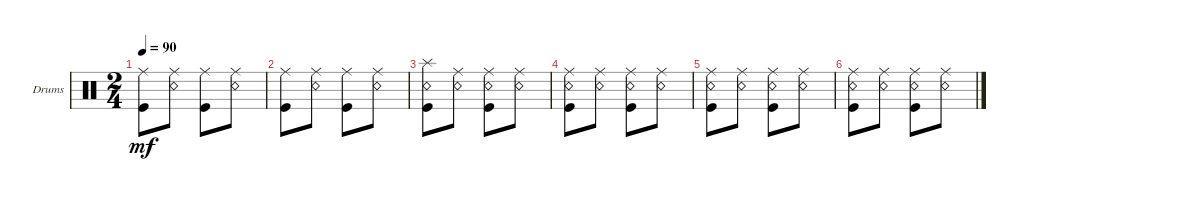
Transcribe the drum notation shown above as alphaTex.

\defaultSystemsLayout 4
\bracketExtendMode groupsimilarinstruments
\firstSystemTrackNameOrientation horizontal
\otherSystemsTrackNameOrientation horizontal
\track ("Drumkit" "Drums") {instrument percussion}
\staff {score}
\articulation defaults
\ts (2 4)
\tempo 90
\clef neutral
\ks c
("Kick (hit)" "Ride (middle)").8{dy mf} ("Ride (middle)" "Snare (rim shot)").8 ("Ride (middle)" "Kick (hit)").8 ("Ride (middle)" "Snare (rim shot)").8 |
("Kick (hit)" "Ride (middle)").8 ("Ride (middle)" "Snare (rim shot)").8 ("Ride (middle)" "Kick (hit)").8 ("Ride (middle)" "Snare (rim shot)").8 |
("Kick (hit)" "Splash (hit)" "Snare (rim shot)").8 ("Ride (middle)" "Snare (rim shot)").8 ("Ride (middle)" "Kick (hit)" "Snare (rim shot)").8 ("Ride (middle)" "Snare (rim shot)").8 |
("Kick (hit)" "Ride (middle)" "Snare (rim shot)").8 ("Ride (middle)" "Snare (rim shot)").8 ("Ride (middle)" "Kick (hit)" "Snare (rim shot)").8 ("Ride (middle)" "Snare (rim shot)").8 |
("Kick (hit)" "Ride (middle)" "Snare (rim shot)").8 ("Ride (middle)" "Snare (rim shot)").8 ("Ride (middle)" "Kick (hit)" "Snare (rim shot)").8 ("Ride (middle)" "Snare (rim shot)").8 |
("Kick (hit)" "Ride (middle)" "Snare (rim shot)").8 ("Ride (middle)" "Snare (rim shot)").8 ("Ride (middle)" "Kick (hit)" "Snare (rim shot)").8 ("Ride (middle)" "Snare (rim shot)").8
